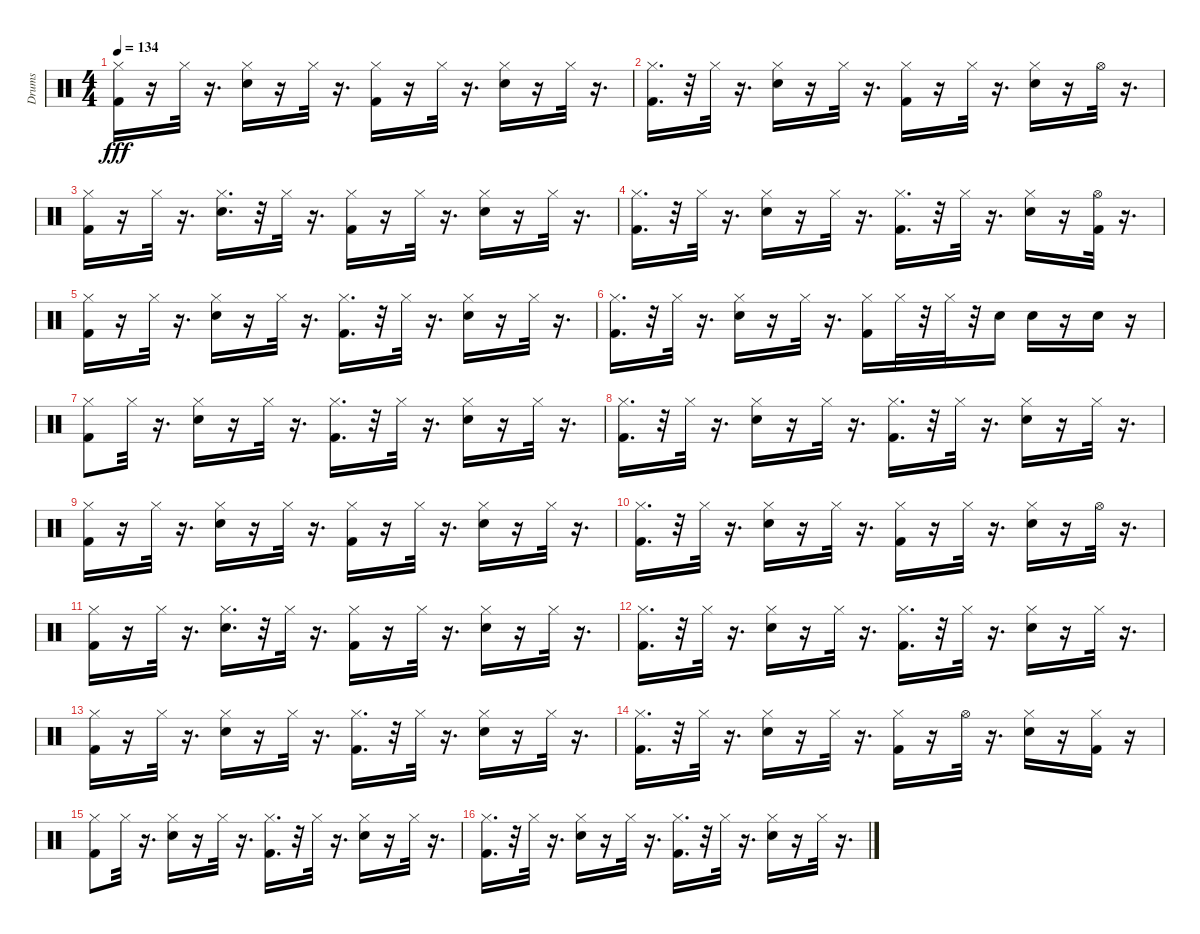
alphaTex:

\track ("Drums" "Drums") {instrument percussion}
\staff {score}
\articulation defaults
\ts (4 4)
\tempo 134
\clef neutral
\ks c
("Kick (hit) 2" "Hi-Hat (closed)").16{dy fff} r.16 "Hi-Hat (closed)".32 r.16{d} ("Snare (hit) 2" "Hi-Hat (closed)").16 r.16 "Hi-Hat (closed)".32 r.16{d} ("Kick (hit) 2" "Hi-Hat (closed)").16 r.16 "Hi-Hat (closed)".32 r.16{d} ("Snare (hit) 2" "Hi-Hat (closed)").16 r.16 "Hi-Hat (closed)".32 r.16{d} |
("Kick (hit) 2" "Hi-Hat (closed)").16{d} r.32 "Hi-Hat (closed)".32 r.16{d} ("Snare (hit) 2" "Hi-Hat (closed)").16 r.16 "Hi-Hat (closed)".32 r.16{d} ("Kick (hit) 2" "Hi-Hat (closed)").16 r.16 "Hi-Hat (closed)".32 r.16{d} ("Snare (hit) 2" "Hi-Hat (closed)").16 r.16 "Hi-Hat (open)".32 r.16{d} |
("Kick (hit) 2" "Hi-Hat (closed)").16 r.16 "Hi-Hat (closed)".32 r.16{d} ("Snare (hit) 2" "Hi-Hat (closed)").16{d} r.32 "Hi-Hat (closed)".32 r.16{d} ("Kick (hit) 2" "Hi-Hat (closed)").16 r.16 "Hi-Hat (closed)".32 r.16{d} ("Snare (hit) 2" "Hi-Hat (closed)").16 r.16 "Hi-Hat (closed)".32 r.16{d} |
("Kick (hit) 2" "Hi-Hat (closed)").16{d} r.32 "Hi-Hat (closed)".32 r.16{d} ("Snare (hit) 2" "Hi-Hat (closed)").16 r.16 "Hi-Hat (closed)".32 r.16{d} ("Kick (hit) 2" "Hi-Hat (closed)").16{d} r.32 "Hi-Hat (closed)".32 r.16{d} ("Snare (hit) 2" "Hi-Hat (closed)").16 r.16 ("Kick (hit) 2" "Hi-Hat (open)").32 r.16{d} |
("Kick (hit) 2" "Hi-Hat (closed)").16 r.16 "Hi-Hat (closed)".32 r.16{d} ("Snare (hit) 2" "Hi-Hat (closed)").16 r.16 "Hi-Hat (closed)".32 r.16{d} ("Kick (hit) 2" "Hi-Hat (closed)").16{d} r.32 "Hi-Hat (closed)".32 r.16{d} ("Snare (hit) 2" "Hi-Hat (closed)").16 r.16 "Hi-Hat (closed)".32 r.16{d} |
("Kick (hit) 2" "Hi-Hat (closed)").16{d} r.32 "Hi-Hat (closed)".32 r.16{d} ("Snare (hit) 2" "Hi-Hat (closed)").16 r.16 "Hi-Hat (closed)".32 r.16{d} ("Kick (hit) 2" "Hi-Hat (closed)").16 "Hi-Hat (closed)".32 r.32 "Hi-Hat (closed)".32 r.32 "Snare (hit) 2".16 "Snare (hit) 2".16 r.16 "Snare (hit) 2".16 r.16 |
("Kick (hit) 2" "Hi-Hat (closed)").8 "Hi-Hat (closed)".32 r.16{d} ("Snare (hit) 2" "Hi-Hat (closed)").16 r.16 "Hi-Hat (closed)".32 r.16{d} ("Kick (hit) 2" "Hi-Hat (closed)").16{d} r.32 "Hi-Hat (closed)".32 r.16{d} ("Snare (hit) 2" "Hi-Hat (closed)").16 r.16 "Hi-Hat (closed)".32 r.16{d} |
("Kick (hit) 2" "Hi-Hat (closed)").16{d} r.32 "Hi-Hat (closed)".32 r.16{d} ("Snare (hit) 2" "Hi-Hat (closed)").16 r.16 "Hi-Hat (closed)".32 r.16{d} ("Kick (hit) 2" "Hi-Hat (closed)").16{d} r.32 "Hi-Hat (closed)".32 r.16{d} ("Snare (hit) 2" "Hi-Hat (closed)").16 r.16 "Hi-Hat (closed)".32 r.16{d} |
("Kick (hit) 2" "Hi-Hat (closed)").16 r.16 "Hi-Hat (closed)".32 r.16{d} ("Snare (hit) 2" "Hi-Hat (closed)").16 r.16 "Hi-Hat (closed)".32 r.16{d} ("Kick (hit) 2" "Hi-Hat (closed)").16 r.16 "Hi-Hat (closed)".32 r.16{d} ("Snare (hit) 2" "Hi-Hat (closed)").16 r.16 "Hi-Hat (closed)".32 r.16{d} |
("Kick (hit) 2" "Hi-Hat (closed)").16{d} r.32 "Hi-Hat (closed)".32 r.16{d} ("Snare (hit) 2" "Hi-Hat (closed)").16 r.16 "Hi-Hat (closed)".32 r.16{d} ("Kick (hit) 2" "Hi-Hat (closed)").16 r.16 "Hi-Hat (closed)".32 r.16{d} ("Snare (hit) 2" "Hi-Hat (closed)").16 r.16 "Hi-Hat (open)".32 r.16{d} |
("Kick (hit) 2" "Hi-Hat (closed)").16 r.16 "Hi-Hat (closed)".32 r.16{d} ("Snare (hit) 2" "Hi-Hat (closed)").16{d} r.32 "Hi-Hat (closed)".32 r.16{d} ("Kick (hit) 2" "Hi-Hat (closed)").16 r.16 "Hi-Hat (closed)".32 r.16{d} ("Snare (hit) 2" "Hi-Hat (closed)").16 r.16 "Hi-Hat (closed)".32 r.16{d} |
("Kick (hit) 2" "Hi-Hat (closed)").16{d} r.32 "Hi-Hat (closed)".32 r.16{d} ("Snare (hit) 2" "Hi-Hat (closed)").16 r.16 "Hi-Hat (closed)".32 r.16{d} ("Kick (hit) 2" "Hi-Hat (closed)").16{d} r.32 "Hi-Hat (closed)".32 r.16{d} ("Snare (hit) 2" "Hi-Hat (closed)").16 r.16 "Hi-Hat (closed)".32 r.16{d} |
("Kick (hit) 2" "Hi-Hat (closed)").16 r.16 "Hi-Hat (closed)".32 r.16{d} ("Snare (hit) 2" "Hi-Hat (closed)").16 r.16 "Hi-Hat (closed)".32 r.16{d} ("Kick (hit) 2" "Hi-Hat (closed)").16{d} r.32 "Hi-Hat (closed)".32 r.16{d} ("Snare (hit) 2" "Hi-Hat (closed)").16 r.16 "Hi-Hat (closed)".32 r.16{d} |
("Kick (hit) 2" "Hi-Hat (closed)").16{d} r.32 "Hi-Hat (closed)".32 r.16{d} ("Snare (hit) 2" "Hi-Hat (closed)").16 r.16 "Hi-Hat (closed)".32 r.16{d} ("Kick (hit) 2" "Hi-Hat (closed)").16 r.16 "Hi-Hat (open)".32 r.16{d} ("Snare (hit) 2" "Hi-Hat (closed)").16 r.16 ("Kick (hit) 2" "Hi-Hat (closed)").16 r.16 |
("Kick (hit) 2" "Hi-Hat (closed)").8 "Hi-Hat (closed)".32 r.16{d} ("Snare (hit) 2" "Hi-Hat (closed)").16 r.16 "Hi-Hat (closed)".32 r.16{d} ("Kick (hit) 2" "Hi-Hat (closed)").16{d} r.32 "Hi-Hat (closed)".32 r.16{d} ("Snare (hit) 2" "Hi-Hat (closed)").16 r.16 "Hi-Hat (closed)".32 r.16{d} |
("Kick (hit) 2" "Hi-Hat (closed)").16{d} r.32 "Hi-Hat (closed)".32 r.16{d} ("Snare (hit) 2" "Hi-Hat (closed)").16 r.16 "Hi-Hat (closed)".32 r.16{d} ("Kick (hit) 2" "Hi-Hat (closed)").16{d} r.32 "Hi-Hat (closed)".32 r.16{d} ("Snare (hit) 2" "Hi-Hat (closed)").16 r.16 "Hi-Hat (closed)".32 r.16{d}
